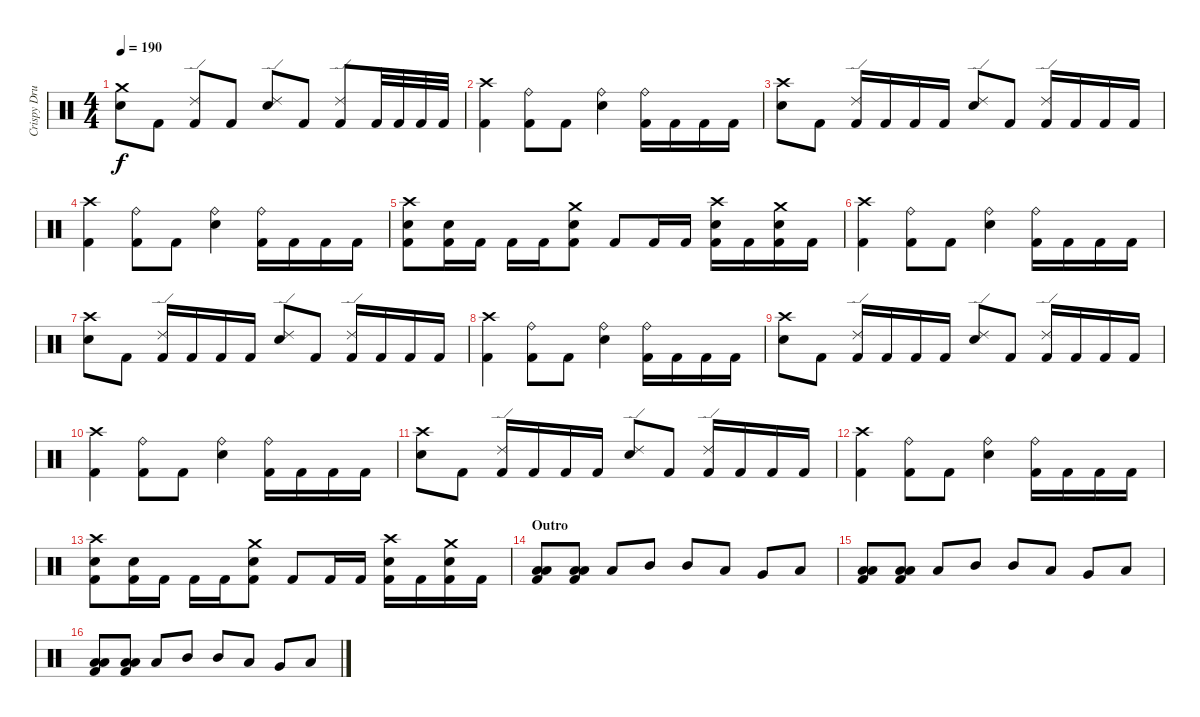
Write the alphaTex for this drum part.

\track ("Crispy Drums" "Crispy Dru") {instrument percussion}
\staff {score}
\articulation defaults
\ts (4 4)
\tempo 190
\clef neutral
\ks c
("Crash medium (hit)" "Electric Snare (hit)").8{dy f} "Kick (hit) 2".8 ("Ride (edge) 2" "Kick (hit) 2").8 "Kick (hit) 2".8 ("Ride (edge) 2" "Electric Snare (hit)").8 "Kick (hit) 2".8 ("Ride (edge) 2" "Kick (hit) 2").8 "Kick (hit) 2".32 "Kick (hit) 2".32 "Kick (hit) 2".32 "Kick (hit) 2".32 |
("Crash high (hit)" "Kick (hit) 2").4 ("Ride (bell)" "Kick (hit) 2").8 "Kick (hit) 2".8 ("Ride (bell)" "Electric Snare (hit)").4 ("Ride (bell)" "Kick (hit) 2").16 "Kick (hit) 2".16 "Kick (hit) 2".16 "Kick (hit) 2".16 |
("Crash high (hit)" "Electric Snare (hit)").8 "Kick (hit) 2".8 ("Ride (edge) 2" "Kick (hit) 2").16 "Kick (hit) 2".16 "Kick (hit) 2".16 "Kick (hit) 2".16 ("Ride (edge) 2" "Electric Snare (hit)").8 "Kick (hit) 2".8 ("Ride (edge) 2" "Kick (hit) 2").16 "Kick (hit) 2".16 "Kick (hit) 2".16 "Kick (hit) 2".16 |
("Crash high (hit)" "Kick (hit) 2").4 ("Ride (bell)" "Kick (hit) 2").8 "Kick (hit) 2".8 ("Ride (bell)" "Electric Snare (hit)").4 ("Ride (bell)" "Kick (hit) 2").16 "Kick (hit) 2".16 "Kick (hit) 2".16 "Kick (hit) 2".16 |
("Crash high (hit)" "Electric Snare (hit)" "Kick (hit) 2").8 ("Electric Snare (hit)" "Kick (hit) 2").16 "Kick (hit) 2".16 "Kick (hit) 2".16 "Kick (hit) 2".16 ("Crash medium (hit)" "Electric Snare (hit)" "Kick (hit) 2").8 "Kick (hit) 2".8 "Kick (hit) 2".16 "Kick (hit) 2".16 ("Crash high (hit)" "Electric Snare (hit)" "Kick (hit) 2").16 "Kick (hit) 2".16 ("Crash medium (hit)" "Electric Snare (hit)" "Kick (hit) 2").16 "Kick (hit) 2".16 |
("Crash high (hit)" "Kick (hit) 2").4 ("Ride (bell)" "Kick (hit) 2").8 "Kick (hit) 2".8 ("Ride (bell)" "Electric Snare (hit)").4 ("Ride (bell)" "Kick (hit) 2").16 "Kick (hit) 2".16 "Kick (hit) 2".16 "Kick (hit) 2".16 |
("Crash high (hit)" "Electric Snare (hit)").8 "Kick (hit) 2".8 ("Ride (edge) 2" "Kick (hit) 2").16 "Kick (hit) 2".16 "Kick (hit) 2".16 "Kick (hit) 2".16 ("Ride (edge) 2" "Electric Snare (hit)").8 "Kick (hit) 2".8 ("Ride (edge) 2" "Kick (hit) 2").16 "Kick (hit) 2".16 "Kick (hit) 2".16 "Kick (hit) 2".16 |
("Crash high (hit)" "Kick (hit) 2").4 ("Ride (bell)" "Kick (hit) 2").8 "Kick (hit) 2".8 ("Ride (bell)" "Electric Snare (hit)").4 ("Ride (bell)" "Kick (hit) 2").16 "Kick (hit) 2".16 "Kick (hit) 2".16 "Kick (hit) 2".16 |
("Crash high (hit)" "Electric Snare (hit)").8 "Kick (hit) 2".8 ("Ride (edge) 2" "Kick (hit) 2").16 "Kick (hit) 2".16 "Kick (hit) 2".16 "Kick (hit) 2".16 ("Ride (edge) 2" "Electric Snare (hit)").8 "Kick (hit) 2".8 ("Ride (edge) 2" "Kick (hit) 2").16 "Kick (hit) 2".16 "Kick (hit) 2".16 "Kick (hit) 2".16 |
("Crash high (hit)" "Kick (hit) 2").4 ("Ride (bell)" "Kick (hit) 2").8 "Kick (hit) 2".8 ("Ride (bell)" "Electric Snare (hit)").4 ("Ride (bell)" "Kick (hit) 2").16 "Kick (hit) 2".16 "Kick (hit) 2".16 "Kick (hit) 2".16 |
("Crash high (hit)" "Electric Snare (hit)").8 "Kick (hit) 2".8 ("Ride (edge) 2" "Kick (hit) 2").16 "Kick (hit) 2".16 "Kick (hit) 2".16 "Kick (hit) 2".16 ("Ride (edge) 2" "Electric Snare (hit)").8 "Kick (hit) 2".8 ("Ride (edge) 2" "Kick (hit) 2").16 "Kick (hit) 2".16 "Kick (hit) 2".16 "Kick (hit) 2".16 |
("Crash high (hit)" "Kick (hit) 2").4 ("Ride (bell)" "Kick (hit) 2").8 "Kick (hit) 2".8 ("Ride (bell)" "Electric Snare (hit)").4 ("Ride (bell)" "Kick (hit) 2").16 "Kick (hit) 2".16 "Kick (hit) 2".16 "Kick (hit) 2".16 |
("Crash high (hit)" "Electric Snare (hit)" "Kick (hit) 2").8 ("Electric Snare (hit)" "Kick (hit) 2").16 "Kick (hit) 2".16 "Kick (hit) 2".16 "Kick (hit) 2".16 ("Crash medium (hit)" "Electric Snare (hit)" "Kick (hit) 2").8 "Kick (hit) 2".8 "Kick (hit) 2".16 "Kick (hit) 2".16 ("Crash high (hit)" "Electric Snare (hit)" "Kick (hit) 2").16 "Kick (hit) 2".16 ("Crash medium (hit)" "Electric Snare (hit)" "Kick (hit) 2").16 "Kick (hit) 2".16 |
\section ("" "Outro")
("Low Tom (hit)" "Low Floor Tom (hit)" "Kick (hit) 2").8 ("Low Tom (hit)" "Low Floor Tom (hit)" "Kick (hit) 2").8 "Low Tom (hit)".8 "Mid Tom (hit)".8 "Mid Tom (hit)".8 "Low Floor Tom (hit)".8 "Very Low Tom (hit)".8 "Low Floor Tom (hit)".8 |
("Low Tom (hit)" "Low Floor Tom (hit)" "Kick (hit) 2").8 ("Low Tom (hit)" "Low Floor Tom (hit)" "Kick (hit) 2").8 "Low Tom (hit)".8 "Mid Tom (hit)".8 "Mid Tom (hit)".8 "Low Floor Tom (hit)".8 "Very Low Tom (hit)".8 "Low Floor Tom (hit)".8 |
("Low Tom (hit)" "Low Floor Tom (hit)" "Kick (hit) 2").8 ("Low Tom (hit)" "Low Floor Tom (hit)" "Kick (hit) 2").8 "Low Tom (hit)".8 "Mid Tom (hit)".8 "Mid Tom (hit)".8 "Low Floor Tom (hit)".8 "Very Low Tom (hit)".8 "Low Floor Tom (hit)".8
